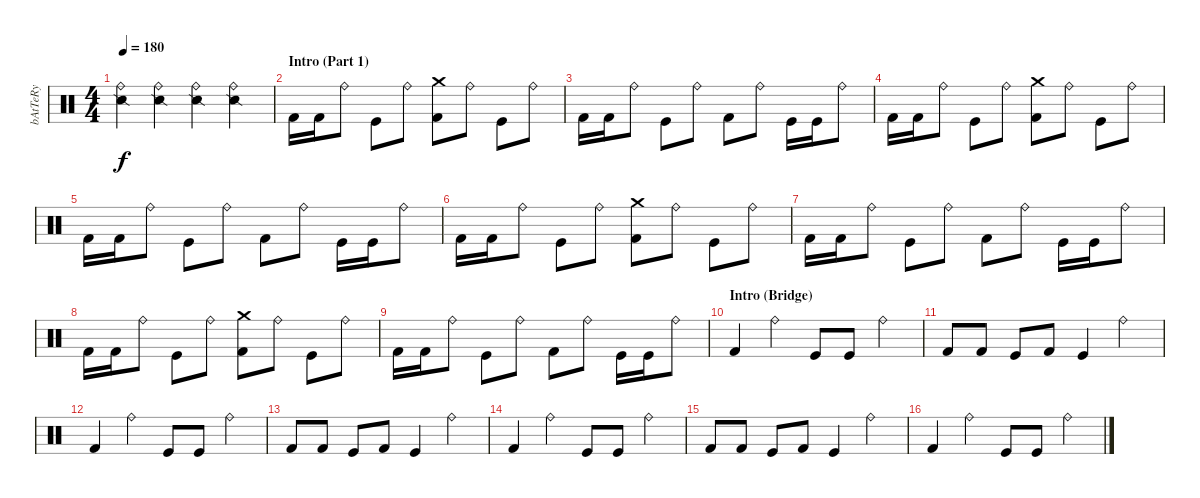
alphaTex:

\track ("bAtTeRy" "bAtTeRy") {instrument percussion}
\staff {score}
\articulation defaults
\ts (4 4)
\tempo 180
\clef neutral
\ks c
("Snare (side stick) 2" "Ride (bell)").4{dy f} ("Snare (side stick) 2" "Ride (bell)").4 ("Snare (side stick) 2" "Ride (bell)").4 ("Snare (side stick) 2" "Ride (bell)").4 |
\section ("" "Intro (Part 1)")
"Kick (hit) 2".16 "Kick (hit) 2".16 "Ride (bell)".8 "Kick (hit)".8 "Ride (bell)".8 ("Crash medium (hit)" "Kick (hit) 2").8 "Ride (bell)".8 "Kick (hit)".8 "Ride (bell)".8 |
"Kick (hit) 2".16 "Kick (hit) 2".16 "Ride (bell)".8 "Kick (hit)".8 "Ride (bell)".8 "Kick (hit) 2".8 "Ride (bell)".8 "Kick (hit)".16 "Kick (hit)".16 "Ride (bell)".8 |
"Kick (hit) 2".16 "Kick (hit) 2".16 "Ride (bell)".8 "Kick (hit)".8 "Ride (bell)".8 ("Crash medium (hit)" "Kick (hit) 2").8 "Ride (bell)".8 "Kick (hit)".8 "Ride (bell)".8 |
"Kick (hit) 2".16 "Kick (hit) 2".16 "Ride (bell)".8 "Kick (hit)".8 "Ride (bell)".8 "Kick (hit) 2".8 "Ride (bell)".8 "Kick (hit)".16 "Kick (hit)".16 "Ride (bell)".8 |
"Kick (hit) 2".16 "Kick (hit) 2".16 "Ride (bell)".8 "Kick (hit)".8 "Ride (bell)".8 ("Crash medium (hit)" "Kick (hit) 2").8 "Ride (bell)".8 "Kick (hit)".8 "Ride (bell)".8 |
"Kick (hit) 2".16 "Kick (hit) 2".16 "Ride (bell)".8 "Kick (hit)".8 "Ride (bell)".8 "Kick (hit) 2".8 "Ride (bell)".8 "Kick (hit)".16 "Kick (hit)".16 "Ride (bell)".8 |
"Kick (hit) 2".16 "Kick (hit) 2".16 "Ride (bell)".8 "Kick (hit)".8 "Ride (bell)".8 ("Crash medium (hit)" "Kick (hit) 2").8 "Ride (bell)".8 "Kick (hit)".8 "Ride (bell)".8 |
"Kick (hit) 2".16 "Kick (hit) 2".16 "Ride (bell)".8 "Kick (hit)".8 "Ride (bell)".8 "Kick (hit) 2".8 "Ride (bell)".8 "Kick (hit)".16 "Kick (hit)".16 "Ride (bell)".8 |
\section ("" "Intro (Bridge)")
"Kick (hit) 2".4 "Ride (bell)".4 "Kick (hit)".8 "Kick (hit)".8 "Ride (bell)".4 |
"Kick (hit) 2".8 "Kick (hit) 2".8 "Kick (hit)".8 "Kick (hit) 2".8 "Kick (hit)".4 "Ride (bell)".4 |
"Kick (hit) 2".4 "Ride (bell)".4 "Kick (hit)".8 "Kick (hit)".8 "Ride (bell)".4 |
"Kick (hit) 2".8 "Kick (hit) 2".8 "Kick (hit)".8 "Kick (hit) 2".8 "Kick (hit)".4 "Ride (bell)".4 |
"Kick (hit) 2".4 "Ride (bell)".4 "Kick (hit)".8 "Kick (hit)".8 "Ride (bell)".4 |
"Kick (hit) 2".8 "Kick (hit) 2".8 "Kick (hit)".8 "Kick (hit) 2".8 "Kick (hit)".4 "Ride (bell)".4 |
"Kick (hit) 2".4 "Ride (bell)".4 "Kick (hit)".8 "Kick (hit)".8 "Ride (bell)".4
